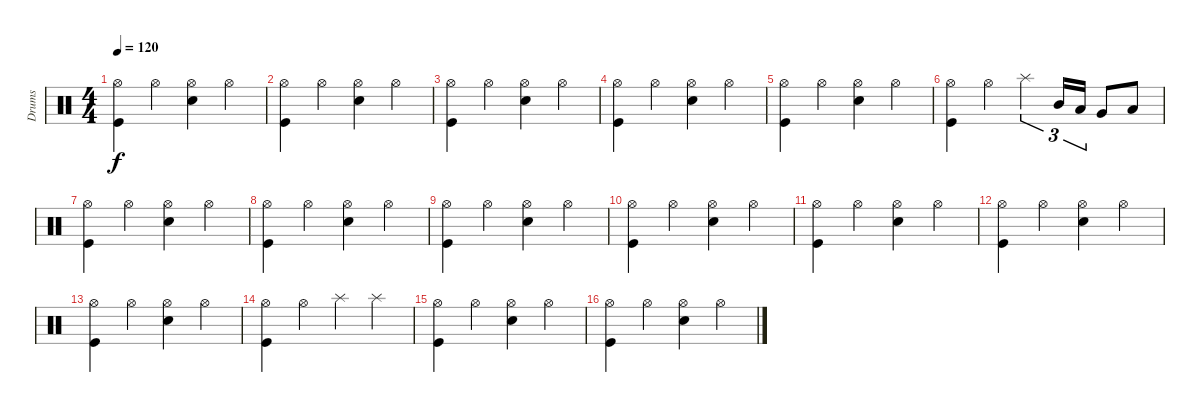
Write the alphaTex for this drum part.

\track ("Drums" "Drums") {instrument percussion}
\staff {score}
\articulation defaults
\ts (4 4)
\tempo 120
\clef neutral
\ks c
("Hi-Hat (open)" "Kick (hit)").4{dy f} "Hi-Hat (open)".4 ("Hi-Hat (open)" "Snare (hit) 2").4 "Hi-Hat (open)".4 |
("Hi-Hat (open)" "Kick (hit)").4 "Hi-Hat (open)".4 ("Hi-Hat (open)" "Snare (hit) 2").4 "Hi-Hat (open)".4 |
("Hi-Hat (open)" "Kick (hit)").4 "Hi-Hat (open)".4 ("Hi-Hat (open)" "Snare (hit) 2").4 "Hi-Hat (open)".4 |
("Hi-Hat (open)" "Kick (hit)").4 "Hi-Hat (open)".4 ("Hi-Hat (open)" "Snare (hit) 2").4 "Hi-Hat (open)".4 |
("Hi-Hat (open)" "Kick (hit)").4 "Hi-Hat (open)".4 ("Hi-Hat (open)" "Snare (hit) 2").4 "Hi-Hat (open)".4 |
("Hi-Hat (open)" "Kick (hit)").4 "Hi-Hat (open)".4 "Splash (hit)".4{tu (3 2)} "Mid Tom (hit)".16{tu (3 2)} "Low Tom (hit)".16{tu (3 2)} "Very Low Tom (hit)".8 "Low Floor Tom (hit)".8 |
("Hi-Hat (open)" "Kick (hit)").4 "Hi-Hat (open)".4 ("Hi-Hat (open)" "Snare (hit) 2").4 "Hi-Hat (open)".4 |
("Hi-Hat (open)" "Kick (hit)").4 "Hi-Hat (open)".4 ("Hi-Hat (open)" "Snare (hit) 2").4 "Hi-Hat (open)".4 |
("Hi-Hat (open)" "Kick (hit)").4 "Hi-Hat (open)".4 ("Hi-Hat (open)" "Snare (hit) 2").4 "Hi-Hat (open)".4 |
("Hi-Hat (open)" "Kick (hit)").4 "Hi-Hat (open)".4 ("Hi-Hat (open)" "Snare (hit) 2").4 "Hi-Hat (open)".4 |
("Hi-Hat (open)" "Kick (hit)").4 "Hi-Hat (open)".4 ("Hi-Hat (open)" "Snare (hit) 2").4 "Hi-Hat (open)".4 |
("Hi-Hat (open)" "Kick (hit)").4 "Hi-Hat (open)".4 ("Hi-Hat (open)" "Snare (hit) 2").4 "Hi-Hat (open)".4 |
("Hi-Hat (open)" "Kick (hit)").4 "Hi-Hat (open)".4 ("Hi-Hat (open)" "Snare (hit) 2").4 "Hi-Hat (open)".4 |
("Hi-Hat (open)" "Kick (hit)").4 "Hi-Hat (open)".4 "Splash (hit)".4 "Splash (hit)".4 |
("Hi-Hat (open)" "Kick (hit)").4 "Hi-Hat (open)".4 ("Hi-Hat (open)" "Snare (hit) 2").4 "Hi-Hat (open)".4 |
("Hi-Hat (open)" "Kick (hit)").4 "Hi-Hat (open)".4 ("Hi-Hat (open)" "Snare (hit) 2").4 "Hi-Hat (open)".4
